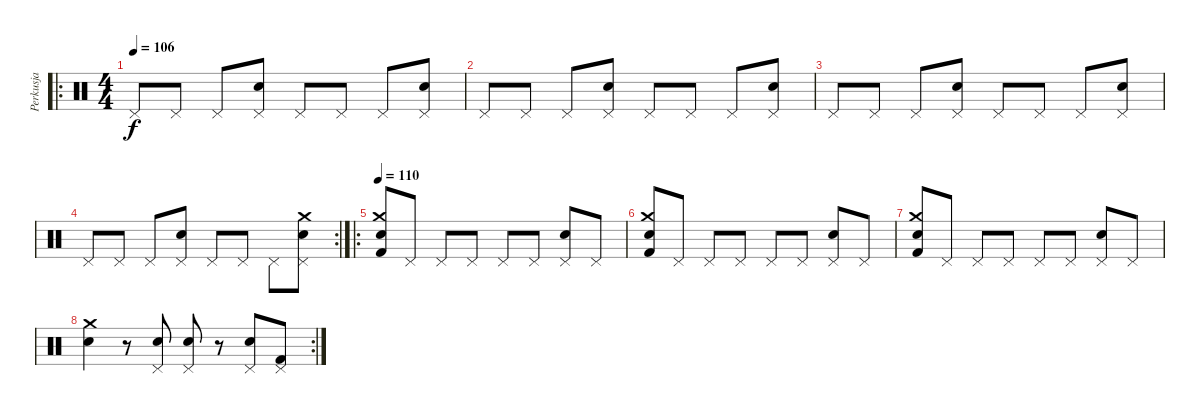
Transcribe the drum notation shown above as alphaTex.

\track ("Perkusja" "Perkusja") {instrument percussion}
\staff {score}
\articulation defaults
\ro
\ts (4 4)
\tempo 106
\clef neutral
\ks c "Pedal Hi-Hat (hit)".8{dy f} "Pedal Hi-Hat (hit)".8 "Pedal Hi-Hat (hit)".8
("Pedal Hi-Hat (hit)" "Snare (hit) 2").8 "Pedal Hi-Hat (hit)".8 "Pedal Hi-Hat (hit)".8 "Pedal Hi-Hat (hit)".8 ("Pedal Hi-Hat (hit)" "Snare (hit) 2").8 |
"Pedal Hi-Hat (hit)".8 "Pedal Hi-Hat (hit)".8 "Pedal Hi-Hat (hit)".8 ("Pedal Hi-Hat (hit)" "Snare (hit) 2").8 "Pedal Hi-Hat (hit)".8 "Pedal Hi-Hat (hit)".8 "Pedal Hi-Hat (hit)".8 ("Pedal Hi-Hat (hit)" "Snare (hit) 2").8 |
"Pedal Hi-Hat (hit)".8 "Pedal Hi-Hat (hit)".8 "Pedal Hi-Hat (hit)".8 ("Pedal Hi-Hat (hit)" "Snare (hit) 2").8 "Pedal Hi-Hat (hit)".8 "Pedal Hi-Hat (hit)".8 "Pedal Hi-Hat (hit)".8 ("Pedal Hi-Hat (hit)" "Snare (hit) 2").8 |
\rc 2 "Pedal Hi-Hat (hit)".8 "Pedal Hi-Hat (hit)".8 "Pedal Hi-Hat (hit)".8
("Pedal Hi-Hat (hit)" "Snare (hit) 2").8 "Pedal Hi-Hat (hit)".8 "Pedal Hi-Hat (hit)".8 "Pedal Hi-Hat (hit)".8 ("Pedal Hi-Hat (hit)" "Snare (hit) 2" "Crash medium (hit)").8 |
\ro
\tempo 110
("Kick (hit) 2" "Snare (hit) 2" "Crash medium (hit)").8 "Pedal Hi-Hat (hit)".8 "Pedal Hi-Hat (hit)".8 "Pedal Hi-Hat (hit)".8 "Pedal Hi-Hat (hit)".8 "Pedal Hi-Hat (hit)".8 ("Pedal Hi-Hat (hit)" "Snare (hit) 2").8 "Pedal Hi-Hat (hit)".8 |
("Kick (hit) 2" "Snare (hit) 2" "Crash medium (hit)").8 "Pedal Hi-Hat (hit)".8 "Pedal Hi-Hat (hit)".8 "Pedal Hi-Hat (hit)".8 "Pedal Hi-Hat (hit)".8 "Pedal Hi-Hat (hit)".8 ("Pedal Hi-Hat (hit)" "Snare (hit) 2").8 "Pedal Hi-Hat (hit)".8 |
("Kick (hit) 2" "Snare (hit) 2" "Crash medium (hit)").8 "Pedal Hi-Hat (hit)".8 "Pedal Hi-Hat (hit)".8 "Pedal Hi-Hat (hit)".8 "Pedal Hi-Hat (hit)".8 "Pedal Hi-Hat (hit)".8 ("Pedal Hi-Hat (hit)" "Snare (hit) 2").8 "Pedal Hi-Hat (hit)".8 |
\rc 2
("Electric Snare (hit)" "Crash medium (hit)").4 r.8 ("Pedal Hi-Hat (hit)" "Electric Snare (hit)").8 ("Pedal Hi-Hat (hit)" "Snare (hit) 2").8 r.8 ("Pedal Hi-Hat (hit)" "Snare (hit) 2").8 ("Pedal Hi-Hat (hit)" "Kick (hit) 2").8
